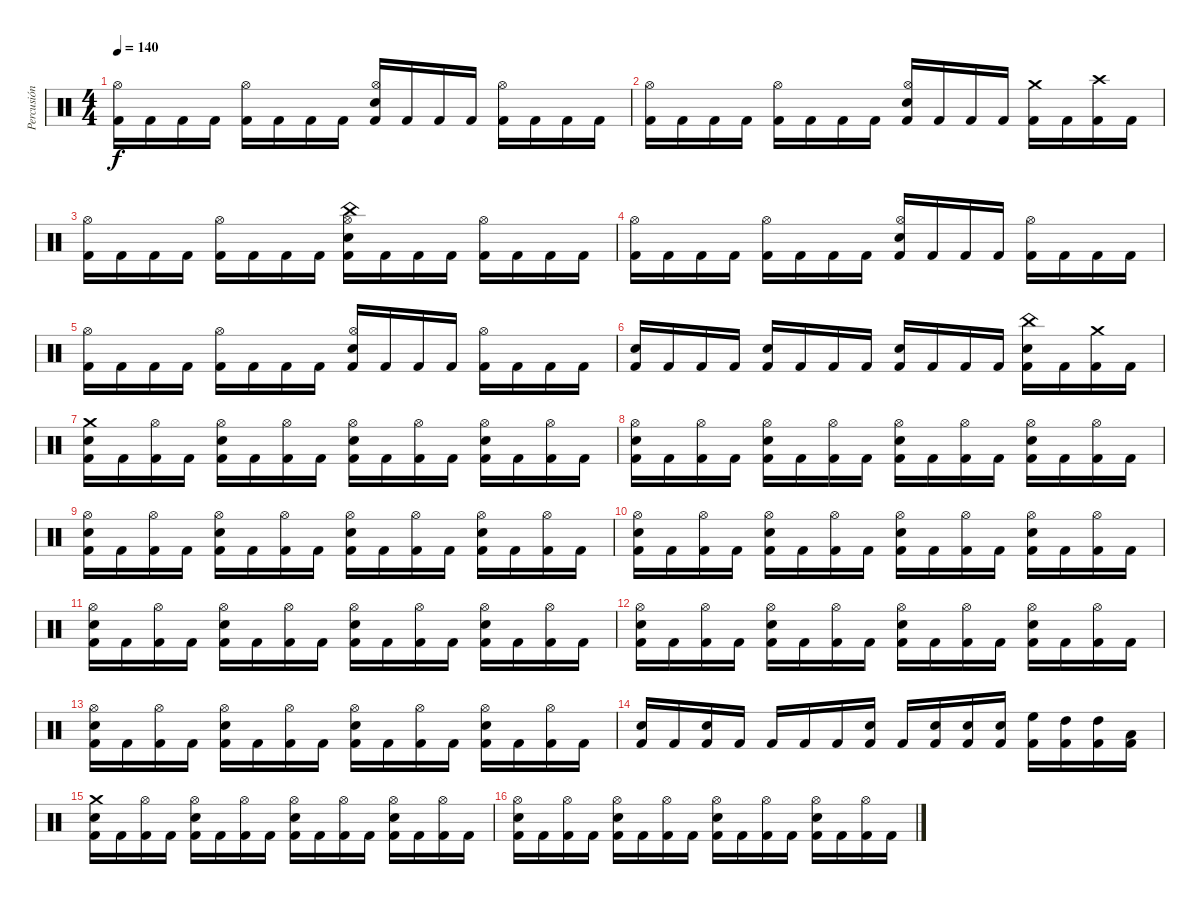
\track ("Percusión" "Percusión") {instrument percussion}
\staff {score}
\articulation defaults
\ts (4 4)
\tempo 140
\clef neutral
\ks c
("Kick (hit) 2" "Hi-Hat (open)").16{dy f} "Kick (hit) 2".16 "Kick (hit) 2".16 "Kick (hit) 2".16 ("Kick (hit) 2" "Hi-Hat (open)").16 "Kick (hit) 2".16 "Kick (hit) 2".16 "Kick (hit) 2".16 ("Kick (hit) 2" "Electric Snare (hit)" "Hi-Hat (open)").16 "Kick (hit) 2".16 "Kick (hit) 2".16 "Kick (hit) 2".16 ("Kick (hit) 2" "Hi-Hat (open)").16 "Kick (hit) 2".16 "Kick (hit) 2".16 "Kick (hit) 2".16 |
("Kick (hit) 2" "Hi-Hat (open)").16 "Kick (hit) 2".16 "Kick (hit) 2".16 "Kick (hit) 2".16 ("Kick (hit) 2" "Hi-Hat (open)").16 "Kick (hit) 2".16 "Kick (hit) 2".16 "Kick (hit) 2".16 ("Kick (hit) 2" "Electric Snare (hit)" "Hi-Hat (open)").16 "Kick (hit) 2".16 "Kick (hit) 2".16 "Kick (hit) 2".16 ("Kick (hit) 2" "Crash medium (hit)").16 "Kick (hit) 2".16 ("Kick (hit) 2" "Crash high (hit)").16 "Kick (hit) 2".16 |
("Kick (hit) 2" "Hi-Hat (open)").16 "Kick (hit) 2".16 "Kick (hit) 2".16 "Kick (hit) 2".16 ("Kick (hit) 2" "Hi-Hat (open)").16 "Kick (hit) 2".16 "Kick (hit) 2".16 "Kick (hit) 2".16 ("Kick (hit) 2" "Electric Snare (hit)" "Hi-Hat (open)" "China (hit)").16 "Kick (hit) 2".16 "Kick (hit) 2".16 "Kick (hit) 2".16 ("Kick (hit) 2" "Hi-Hat (open)").16 "Kick (hit) 2".16 "Kick (hit) 2".16 "Kick (hit) 2".16 |
("Kick (hit) 2" "Hi-Hat (open)").16 "Kick (hit) 2".16 "Kick (hit) 2".16 "Kick (hit) 2".16 ("Kick (hit) 2" "Hi-Hat (open)").16 "Kick (hit) 2".16 "Kick (hit) 2".16 "Kick (hit) 2".16 ("Kick (hit) 2" "Electric Snare (hit)" "Hi-Hat (open)").16 "Kick (hit) 2".16 "Kick (hit) 2".16 "Kick (hit) 2".16 ("Kick (hit) 2" "Hi-Hat (open)").16 "Kick (hit) 2".16 "Kick (hit) 2".16 "Kick (hit) 2".16 |
("Kick (hit) 2" "Hi-Hat (open)").16 "Kick (hit) 2".16 "Kick (hit) 2".16 "Kick (hit) 2".16 ("Kick (hit) 2" "Hi-Hat (open)").16 "Kick (hit) 2".16 "Kick (hit) 2".16 "Kick (hit) 2".16 ("Kick (hit) 2" "Electric Snare (hit)" "Hi-Hat (open)").16 "Kick (hit) 2".16 "Kick (hit) 2".16 "Kick (hit) 2".16 ("Kick (hit) 2" "Hi-Hat (open)").16 "Kick (hit) 2".16 "Kick (hit) 2".16 "Kick (hit) 2".16 |
("Kick (hit) 2" "Electric Snare (hit)").16 "Kick (hit) 2".16 "Kick (hit) 2".16 "Kick (hit) 2".16 ("Kick (hit) 2" "Electric Snare (hit)").16 "Kick (hit) 2".16 "Kick (hit) 2".16 "Kick (hit) 2".16 ("Kick (hit) 2" "Electric Snare (hit)").16 "Kick (hit) 2".16 "Kick (hit) 2".16 "Kick (hit) 2".16 ("Kick (hit) 2" "Electric Snare (hit)" "China (hit)").16 "Kick (hit) 2".16 ("Kick (hit) 2" "Crash medium (hit)").16 "Kick (hit) 2".16 |
("Kick (hit) 2" "Electric Snare (hit)" "Crash medium (hit)").16 "Kick (hit) 2".16 ("Kick (hit) 2" "Hi-Hat (open)").16 "Kick (hit) 2".16 ("Kick (hit) 2" "Electric Snare (hit)" "Hi-Hat (open)").16 "Kick (hit) 2".16 ("Kick (hit) 2" "Hi-Hat (open)").16 "Kick (hit) 2".16 ("Kick (hit) 2" "Electric Snare (hit)" "Hi-Hat (open)").16 "Kick (hit) 2".16 ("Kick (hit) 2" "Hi-Hat (open)").16 "Kick (hit) 2".16 ("Kick (hit) 2" "Electric Snare (hit)" "Hi-Hat (open)").16 "Kick (hit) 2".16 ("Kick (hit) 2" "Hi-Hat (open)").16 "Kick (hit) 2".16 |
("Kick (hit) 2" "Electric Snare (hit)" "Hi-Hat (open)").16 "Kick (hit) 2".16 ("Kick (hit) 2" "Hi-Hat (open)").16 "Kick (hit) 2".16 ("Kick (hit) 2" "Electric Snare (hit)" "Hi-Hat (open)").16 "Kick (hit) 2".16 ("Kick (hit) 2" "Hi-Hat (open)").16 "Kick (hit) 2".16 ("Kick (hit) 2" "Electric Snare (hit)" "Hi-Hat (open)").16 "Kick (hit) 2".16 ("Kick (hit) 2" "Hi-Hat (open)").16 "Kick (hit) 2".16 ("Kick (hit) 2" "Electric Snare (hit)" "Hi-Hat (open)").16 "Kick (hit) 2".16 ("Kick (hit) 2" "Hi-Hat (open)").16 "Kick (hit) 2".16 |
("Kick (hit) 2" "Electric Snare (hit)" "Hi-Hat (open)").16 "Kick (hit) 2".16 ("Kick (hit) 2" "Hi-Hat (open)").16 "Kick (hit) 2".16 ("Kick (hit) 2" "Electric Snare (hit)" "Hi-Hat (open)").16 "Kick (hit) 2".16 ("Kick (hit) 2" "Hi-Hat (open)").16 "Kick (hit) 2".16 ("Kick (hit) 2" "Electric Snare (hit)" "Hi-Hat (open)").16 "Kick (hit) 2".16 ("Kick (hit) 2" "Hi-Hat (open)").16 "Kick (hit) 2".16 ("Kick (hit) 2" "Electric Snare (hit)" "Hi-Hat (open)").16 "Kick (hit) 2".16 ("Kick (hit) 2" "Hi-Hat (open)").16 "Kick (hit) 2".16 |
("Kick (hit) 2" "Electric Snare (hit)" "Hi-Hat (open)").16 "Kick (hit) 2".16 ("Kick (hit) 2" "Hi-Hat (open)").16 "Kick (hit) 2".16 ("Kick (hit) 2" "Electric Snare (hit)" "Hi-Hat (open)").16 "Kick (hit) 2".16 ("Kick (hit) 2" "Hi-Hat (open)").16 "Kick (hit) 2".16 ("Kick (hit) 2" "Electric Snare (hit)" "Hi-Hat (open)").16 "Kick (hit) 2".16 ("Kick (hit) 2" "Hi-Hat (open)").16 "Kick (hit) 2".16 ("Kick (hit) 2" "Electric Snare (hit)" "Hi-Hat (open)").16 "Kick (hit) 2".16 ("Kick (hit) 2" "Hi-Hat (open)").16 "Kick (hit) 2".16 |
("Kick (hit) 2" "Electric Snare (hit)" "Hi-Hat (open)").16 "Kick (hit) 2".16 ("Kick (hit) 2" "Hi-Hat (open)").16 "Kick (hit) 2".16 ("Kick (hit) 2" "Electric Snare (hit)" "Hi-Hat (open)").16 "Kick (hit) 2".16 ("Kick (hit) 2" "Hi-Hat (open)").16 "Kick (hit) 2".16 ("Kick (hit) 2" "Electric Snare (hit)" "Hi-Hat (open)").16 "Kick (hit) 2".16 ("Kick (hit) 2" "Hi-Hat (open)").16 "Kick (hit) 2".16 ("Kick (hit) 2" "Electric Snare (hit)" "Hi-Hat (open)").16 "Kick (hit) 2".16 ("Kick (hit) 2" "Hi-Hat (open)").16 "Kick (hit) 2".16 |
("Kick (hit) 2" "Electric Snare (hit)" "Hi-Hat (open)").16 "Kick (hit) 2".16 ("Kick (hit) 2" "Hi-Hat (open)").16 "Kick (hit) 2".16 ("Kick (hit) 2" "Electric Snare (hit)" "Hi-Hat (open)").16 "Kick (hit) 2".16 ("Kick (hit) 2" "Hi-Hat (open)").16 "Kick (hit) 2".16 ("Kick (hit) 2" "Electric Snare (hit)" "Hi-Hat (open)").16 "Kick (hit) 2".16 ("Kick (hit) 2" "Hi-Hat (open)").16 "Kick (hit) 2".16 ("Kick (hit) 2" "Electric Snare (hit)" "Hi-Hat (open)").16 "Kick (hit) 2".16 ("Kick (hit) 2" "Hi-Hat (open)").16 "Kick (hit) 2".16 |
("Kick (hit) 2" "Electric Snare (hit)" "Hi-Hat (open)").16 "Kick (hit) 2".16 ("Kick (hit) 2" "Hi-Hat (open)").16 "Kick (hit) 2".16 ("Kick (hit) 2" "Electric Snare (hit)" "Hi-Hat (open)").16 "Kick (hit) 2".16 ("Kick (hit) 2" "Hi-Hat (open)").16 "Kick (hit) 2".16 ("Kick (hit) 2" "Electric Snare (hit)" "Hi-Hat (open)").16 "Kick (hit) 2".16 ("Kick (hit) 2" "Hi-Hat (open)").16 "Kick (hit) 2".16 ("Kick (hit) 2" "Electric Snare (hit)" "Hi-Hat (open)").16 "Kick (hit) 2".16 ("Kick (hit) 2" "Hi-Hat (open)").16 "Kick (hit) 2".16 |
("Kick (hit) 2" "Electric Snare (hit)").16 "Kick (hit) 2".16 ("Kick (hit) 2" "Electric Snare (hit)").16 "Kick (hit) 2".16 "Kick (hit) 2".16 "Kick (hit) 2".16 "Kick (hit) 2".16 ("Kick (hit) 2" "Electric Snare (hit)").16 "Kick (hit) 2".16 ("Kick (hit) 2" "Electric Snare (hit)").16 ("Kick (hit) 2" "Electric Snare (hit)").16 ("Kick (hit) 2" "Electric Snare (hit)").16 ("Kick (hit) 2" "High Floor Tom (hit)").16 ("Kick (hit) 2" "High Tom (hit)").16 ("Kick (hit) 2" "High Tom (hit)").16 ("Kick (hit) 2" "Low Tom (hit)").16 |
("Kick (hit) 2" "Electric Snare (hit)" "Crash medium (hit)").16 "Kick (hit) 2".16 ("Kick (hit) 2" "Hi-Hat (open)").16 "Kick (hit) 2".16 ("Kick (hit) 2" "Electric Snare (hit)" "Hi-Hat (open)").16 "Kick (hit) 2".16 ("Kick (hit) 2" "Hi-Hat (open)").16 "Kick (hit) 2".16 ("Kick (hit) 2" "Electric Snare (hit)" "Hi-Hat (open)").16 "Kick (hit) 2".16 ("Kick (hit) 2" "Hi-Hat (open)").16 "Kick (hit) 2".16 ("Kick (hit) 2" "Electric Snare (hit)" "Hi-Hat (open)").16 "Kick (hit) 2".16 ("Kick (hit) 2" "Hi-Hat (open)").16 "Kick (hit) 2".16 |
("Kick (hit) 2" "Electric Snare (hit)" "Hi-Hat (open)").16 "Kick (hit) 2".16 ("Kick (hit) 2" "Hi-Hat (open)").16 "Kick (hit) 2".16 ("Kick (hit) 2" "Electric Snare (hit)" "Hi-Hat (open)").16 "Kick (hit) 2".16 ("Kick (hit) 2" "Hi-Hat (open)").16 "Kick (hit) 2".16 ("Kick (hit) 2" "Electric Snare (hit)" "Hi-Hat (open)").16 "Kick (hit) 2".16 ("Kick (hit) 2" "Hi-Hat (open)").16 "Kick (hit) 2".16 ("Kick (hit) 2" "Electric Snare (hit)" "Hi-Hat (open)").16 "Kick (hit) 2".16 ("Kick (hit) 2" "Hi-Hat (open)").16 "Kick (hit) 2".16
